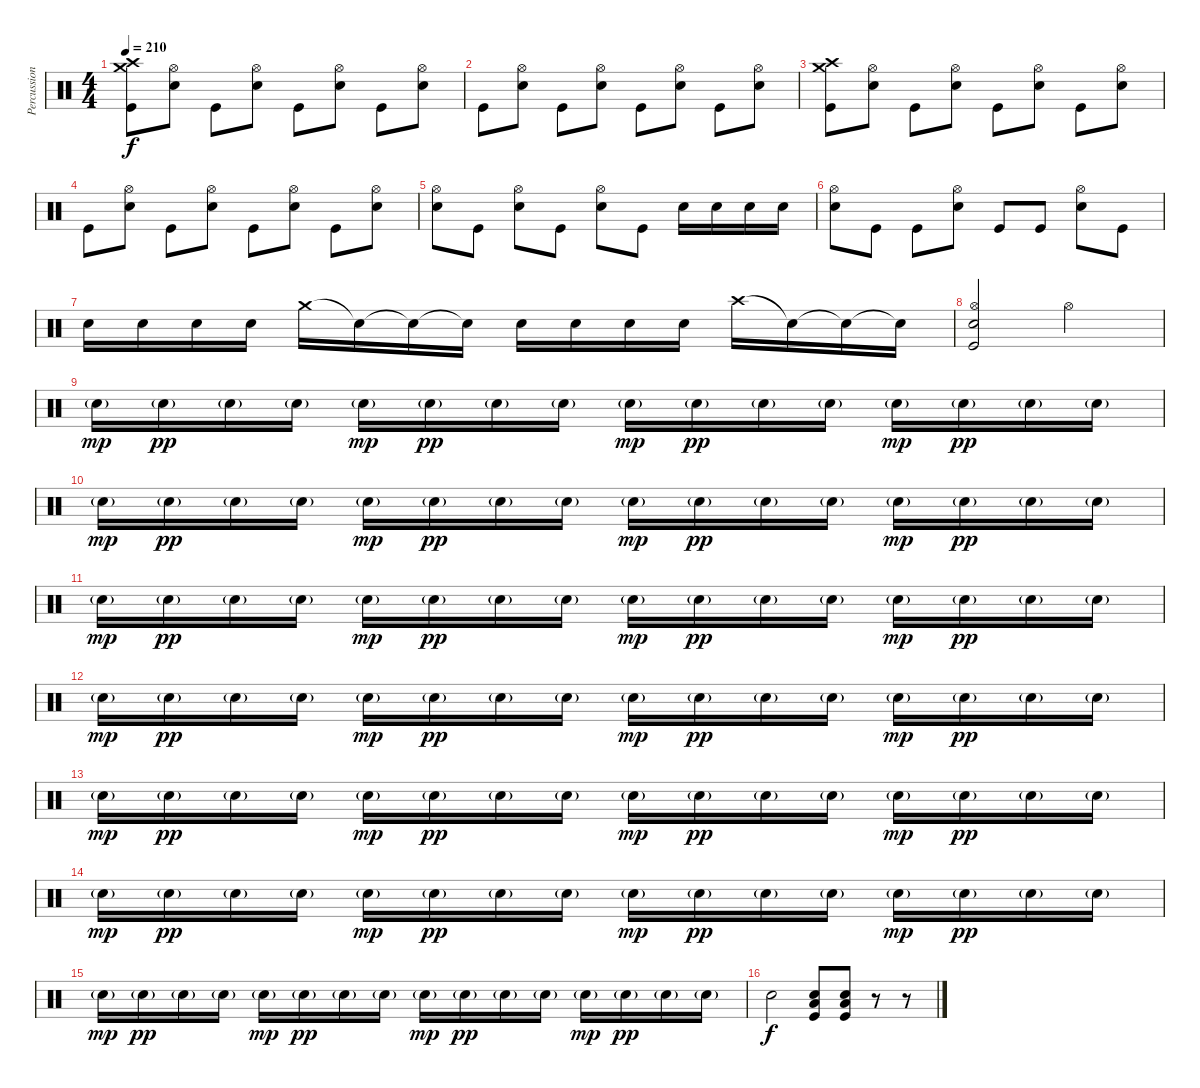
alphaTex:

\track ("Percussion" "Percussion") {instrument percussion}
\staff {score}
\articulation defaults
\ts (4 4)
\tempo 210
\clef neutral
\ks c
("Crash medium (hit)" "Crash high (hit)" "Kick (hit)").8{dy f} ("Hi-Hat (open)" "Electric Snare (hit)").8 "Kick (hit)".8 ("Hi-Hat (open)" "Electric Snare (hit)").8 "Kick (hit)".8 ("Hi-Hat (open)" "Electric Snare (hit)").8 "Kick (hit)".8 ("Hi-Hat (open)" "Electric Snare (hit)").8 |
"Kick (hit)".8 ("Hi-Hat (open)" "Electric Snare (hit)").8 "Kick (hit)".8 ("Hi-Hat (open)" "Electric Snare (hit)").8 "Kick (hit)".8 ("Hi-Hat (open)" "Electric Snare (hit)").8 "Kick (hit)".8 ("Hi-Hat (open)" "Electric Snare (hit)").8 |
("Crash medium (hit)" "Crash high (hit)" "Kick (hit)").8 ("Hi-Hat (open)" "Electric Snare (hit)").8 "Kick (hit)".8 ("Hi-Hat (open)" "Electric Snare (hit)").8 "Kick (hit)".8 ("Hi-Hat (open)" "Electric Snare (hit)").8 "Kick (hit)".8 ("Hi-Hat (open)" "Electric Snare (hit)").8 |
"Kick (hit)".8 ("Hi-Hat (open)" "Electric Snare (hit)").8 "Kick (hit)".8 ("Hi-Hat (open)" "Electric Snare (hit)").8 "Kick (hit)".8 ("Hi-Hat (open)" "Electric Snare (hit)").8 "Kick (hit)".8 ("Hi-Hat (open)" "Electric Snare (hit)").8 |
("Hi-Hat (open)" "Electric Snare (hit)").8 "Kick (hit)".8 ("Hi-Hat (open)" "Electric Snare (hit)").8 "Kick (hit)".8 ("Hi-Hat (open)" "Electric Snare (hit)").8 "Kick (hit)".8 "Electric Snare (hit)".16 "Electric Snare (hit)".16 "Electric Snare (hit)".16 "Electric Snare (hit)".16 |
("Hi-Hat (open)" "Electric Snare (hit)").8 "Kick (hit)".8 "Kick (hit)".8 ("Hi-Hat (open)" "Electric Snare (hit)").8 "Kick (hit)".8 "Kick (hit)".8 ("Hi-Hat (open)" "Electric Snare (hit)").8 "Kick (hit)".8 |
"Electric Snare (hit)".16 "Electric Snare (hit)".16 "Electric Snare (hit)".16 "Electric Snare (hit)".16 "Crash medium (hit)".16 "Snare (hit)"{t}.16 "Snare (hit)"{t}.16 "Snare (hit)"{t}.16 "Electric Snare (hit)".16 "Electric Snare (hit)".16 "Electric Snare (hit)".16 "Electric Snare (hit)".16 "Crash high (hit)".16 "Snare (hit)"{t}.16 "Snare (hit)"{t}.16 "Snare (hit)"{t}.16 |
("Hi-Hat (open)" "Electric Snare (hit)" "Kick (hit)").2 "Hi-Hat (open)".2 |
"Electric Snare (hit)"{g}.16{dy mp} "Electric Snare (hit)"{g}.16{dy pp} "Electric Snare (hit)"{g}.16 "Electric Snare (hit)"{g}.16 "Electric Snare (hit)"{g}.16{dy mp} "Electric Snare (hit)"{g}.16{dy pp} "Electric Snare (hit)"{g}.16 "Electric Snare (hit)"{g}.16 "Electric Snare (hit)"{g}.16{dy mp} "Electric Snare (hit)"{g}.16{dy pp} "Electric Snare (hit)"{g}.16 "Electric Snare (hit)"{g}.16 "Electric Snare (hit)"{g}.16{dy mp} "Electric Snare (hit)"{g}.16{dy pp} "Electric Snare (hit)"{g}.16 "Electric Snare (hit)"{g}.16 |
"Electric Snare (hit)"{g}.16{dy mp} "Electric Snare (hit)"{g}.16{dy pp} "Electric Snare (hit)"{g}.16 "Electric Snare (hit)"{g}.16 "Electric Snare (hit)"{g}.16{dy mp} "Electric Snare (hit)"{g}.16{dy pp} "Electric Snare (hit)"{g}.16 "Electric Snare (hit)"{g}.16 "Electric Snare (hit)"{g}.16{dy mp} "Electric Snare (hit)"{g}.16{dy pp} "Electric Snare (hit)"{g}.16 "Electric Snare (hit)"{g}.16 "Electric Snare (hit)"{g}.16{dy mp} "Electric Snare (hit)"{g}.16{dy pp} "Electric Snare (hit)"{g}.16 "Electric Snare (hit)"{g}.16 |
"Electric Snare (hit)"{g}.16{dy mp} "Electric Snare (hit)"{g}.16{dy pp} "Electric Snare (hit)"{g}.16 "Electric Snare (hit)"{g}.16 "Electric Snare (hit)"{g}.16{dy mp} "Electric Snare (hit)"{g}.16{dy pp} "Electric Snare (hit)"{g}.16 "Electric Snare (hit)"{g}.16 "Electric Snare (hit)"{g}.16{dy mp} "Electric Snare (hit)"{g}.16{dy pp} "Electric Snare (hit)"{g}.16 "Electric Snare (hit)"{g}.16 "Electric Snare (hit)"{g}.16{dy mp} "Electric Snare (hit)"{g}.16{dy pp} "Electric Snare (hit)"{g}.16 "Electric Snare (hit)"{g}.16 |
"Electric Snare (hit)"{g}.16{dy mp} "Electric Snare (hit)"{g}.16{dy pp} "Electric Snare (hit)"{g}.16 "Electric Snare (hit)"{g}.16 "Electric Snare (hit)"{g}.16{dy mp} "Electric Snare (hit)"{g}.16{dy pp} "Electric Snare (hit)"{g}.16 "Electric Snare (hit)"{g}.16 "Electric Snare (hit)"{g}.16{dy mp} "Electric Snare (hit)"{g}.16{dy pp} "Electric Snare (hit)"{g}.16 "Electric Snare (hit)"{g}.16 "Electric Snare (hit)"{g}.16{dy mp} "Electric Snare (hit)"{g}.16{dy pp} "Electric Snare (hit)"{g}.16 "Electric Snare (hit)"{g}.16 |
"Electric Snare (hit)"{g}.16{dy mp} "Electric Snare (hit)"{g}.16{dy pp} "Electric Snare (hit)"{g}.16 "Electric Snare (hit)"{g}.16 "Electric Snare (hit)"{g}.16{dy mp} "Electric Snare (hit)"{g}.16{dy pp} "Electric Snare (hit)"{g}.16 "Electric Snare (hit)"{g}.16 "Electric Snare (hit)"{g}.16{dy mp} "Electric Snare (hit)"{g}.16{dy pp} "Electric Snare (hit)"{g}.16 "Electric Snare (hit)"{g}.16 "Electric Snare (hit)"{g}.16{dy mp} "Electric Snare (hit)"{g}.16{dy pp} "Electric Snare (hit)"{g}.16 "Electric Snare (hit)"{g}.16 |
"Electric Snare (hit)"{g}.16{dy mp} "Electric Snare (hit)"{g}.16{dy pp} "Electric Snare (hit)"{g}.16 "Electric Snare (hit)"{g}.16 "Electric Snare (hit)"{g}.16{dy mp} "Electric Snare (hit)"{g}.16{dy pp} "Electric Snare (hit)"{g}.16 "Electric Snare (hit)"{g}.16 "Electric Snare (hit)"{g}.16{dy mp} "Electric Snare (hit)"{g}.16{dy pp} "Electric Snare (hit)"{g}.16 "Electric Snare (hit)"{g}.16 "Electric Snare (hit)"{g}.16{dy mp} "Electric Snare (hit)"{g}.16{dy pp} "Electric Snare (hit)"{g}.16 "Electric Snare (hit)"{g}.16 |
"Electric Snare (hit)"{g}.16{dy mp} "Electric Snare (hit)"{g}.16{dy pp} "Electric Snare (hit)"{g}.16 "Electric Snare (hit)"{g}.16 "Electric Snare (hit)"{g}.16{dy mp} "Electric Snare (hit)"{g}.16{dy pp} "Electric Snare (hit)"{g}.16 "Electric Snare (hit)"{g}.16 "Electric Snare (hit)"{g}.16{dy mp} "Electric Snare (hit)"{g}.16{dy pp} "Electric Snare (hit)"{g}.16 "Electric Snare (hit)"{g}.16 "Electric Snare (hit)"{g}.16{dy mp} "Electric Snare (hit)"{g}.16{dy pp} "Electric Snare (hit)"{g}.16 "Electric Snare (hit)"{g}.16 |
"Electric Snare (hit)".2{dy f} ("Low Tom (hit)" "Electric Snare (hit)" "Kick (hit)").8 ("Low Tom (hit)" "Electric Snare (hit)" "Kick (hit)").8 r.8 r.8
